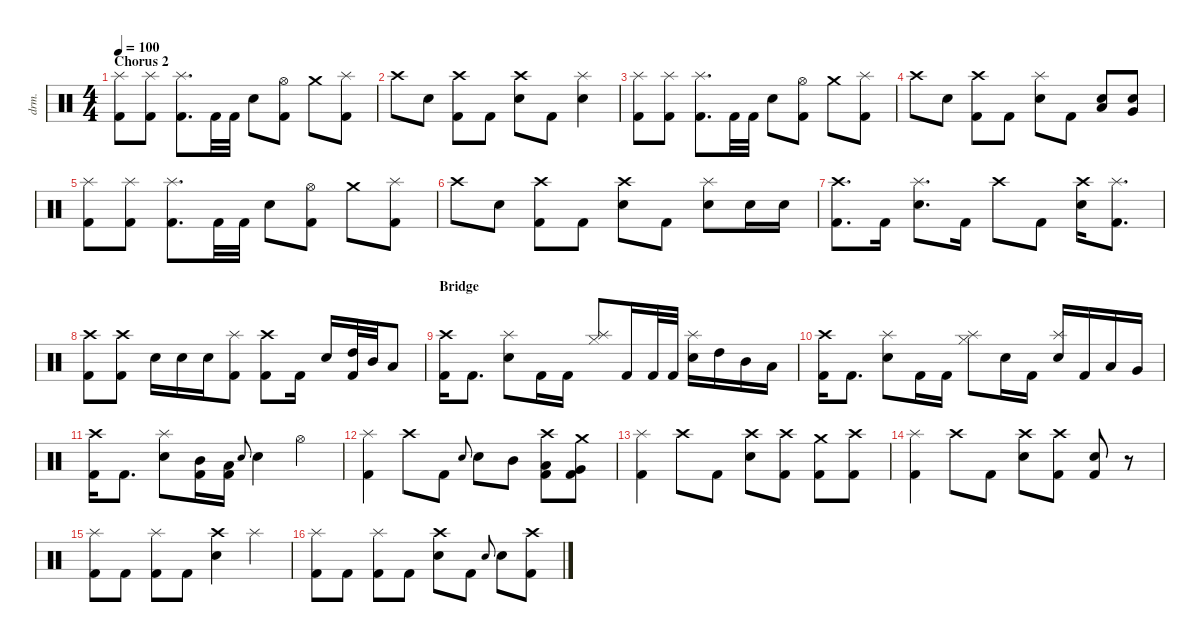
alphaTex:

\defaultSystemsLayout 4
\hideDynamics
\bracketExtendMode nobrackets
\otherSystemsTrackNameOrientation horizontal
\track ("Jorge" "drm.") {instrument percussion}
\staff {score}
\articulation defaults
\ts (4 4)
\section ("" "Chorus 2")
\tempo 100
\clef neutral
\ks c
("Splash (hit)" "Kick (hit) 2").8{dy mf beam Down} ("Kick (hit) 2" "Splash (hit)").8{beam Down} ("Kick (hit) 2" "Splash (hit)").8{d beam Down} "Kick (hit) 2".32{beam Down} "Kick (hit) 2".32{beam Down} "Snare (hit) 2".8{beam Down} ("Kick (hit) 2" "Hi-Hat (open)").8{beam Down} "Crash medium (hit)".8{beam Down} ("Splash (hit)" "Kick (hit) 2").8{beam Down} |
"Crash high (hit)".8{beam Down} "Snare (hit) 2".8{beam Down} ("Kick (hit) 2" "Crash high (hit)").8{beam Down} "Kick (hit) 2".8{beam Down} ("Snare (hit) 2" "Crash high (hit)").8{beam Down} "Kick (hit) 2".8{beam Down} ("Snare (hit) 2" "Splash (hit)").4{beam Down} |
("Splash (hit)" "Kick (hit) 2").8{beam Down} ("Kick (hit) 2" "Splash (hit)").8{beam Down} ("Kick (hit) 2" "Splash (hit)").8{d beam Down} "Kick (hit) 2".32{beam Down} "Kick (hit) 2".32{beam Down} "Snare (hit) 2".8{beam Down} ("Kick (hit) 2" "Hi-Hat (open)").8{beam Down} "Crash medium (hit)".8{beam Down} ("Splash (hit)" "Kick (hit) 2").8{beam Down} |
"Crash high (hit)".8{beam Down} "Snare (hit) 2".8{beam Down} ("Kick (hit) 2" "Crash high (hit)").8{beam Down} "Kick (hit) 2".8{beam Down} ("Snare (hit) 2" "Splash (hit)").8{beam Down} "Kick (hit) 2".8{beam Down} ("Snare (hit) 2" "Low Tom (hit)").8{beam Up} ("Snare (hit) 2" "Very Low Tom (hit)").8{beam Up} |
("Splash (hit)" "Kick (hit) 2").8{beam Down} ("Kick (hit) 2" "Splash (hit)").8{beam Down} ("Kick (hit) 2" "Splash (hit)").8{d beam Down} "Kick (hit) 2".32{beam Down} "Kick (hit) 2".32{beam Down} "Snare (hit) 2".8{beam Down} ("Kick (hit) 2" "Hi-Hat (open)").8{beam Down} "Crash medium (hit)".8{beam Down} ("Splash (hit)" "Kick (hit) 2").8{beam Down} |
"Crash high (hit)".8{beam Down} "Snare (hit) 2".8{beam Down} ("Kick (hit) 2" "Crash high (hit)").8{beam Down} "Kick (hit) 2".8{beam Down} ("Snare (hit) 2" "Crash high (hit)").8{beam Down} "Kick (hit) 2".8{beam Down} ("Snare (hit) 2" "Splash (hit)").8{beam Down} "Snare (hit) 2".16{beam Down} "Snare (hit) 2".16{beam Down} |
("Crash high (hit)" "Kick (hit) 2").8{d beam Down} "Kick (hit) 2".16{beam Down} ("Snare (hit) 2" "Splash (hit)").8{d beam Down} "Kick (hit) 2".16{beam Down} "Crash high (hit)".8{beam Down} "Kick (hit) 2".8{beam Down} ("Snare (hit) 2" "Crash high (hit)").16{beam Down} ("Kick (hit) 2" "Splash (hit)").8{d beam Down} |
("Kick (hit) 2" "Crash high (hit)").8{beam Down} ("Kick (hit) 2" "Crash high (hit)").8{beam Down} "Snare (hit) 2".16{beam Down} "Snare (hit) 2".16{beam Down} "Snare (hit) 2".16{beam Down} ("Kick (hit) 2" "Splash (hit)").8{beam Down} ("Kick (hit) 2" "Crash high (hit)").8{beam Down} "Kick (hit) 2".16{beam Down} "Snare (hit) 2".16{beam Up} ("High Tom (hit)" "Kick (hit) 2").32{beam Up} "Mid Tom (hit)".32{beam Up} "Low Tom (hit)".8{beam Up} |
\section ("" "Bridge")
("Kick (hit) 2" "Crash high (hit)").16{beam Down} "Kick (hit) 2".8{d beam Down} ("Splash (hit)" "Snare (hit) 2").8{beam Down} "Kick (hit) 2".16{beam Down} "Kick (hit) 2".16{beam Down} ("Splash (hit)" "Hi-Hat (closed)").8{beam Up} "Kick (hit) 2".16{beam Up} "Kick (hit) 2".32{beam Up} "Kick (hit) 2".32{beam Up} ("Snare (hit) 2" "Splash (hit)").16{beam Down} "High Tom (hit)".16{beam Down} "Mid Tom (hit)".16{beam Down} "Low Tom (hit)".16{beam Down} |
("Kick (hit) 2" "Crash high (hit)").16{beam Down} "Kick (hit) 2".8{d beam Down} ("Splash (hit)" "Snare (hit) 2").8{beam Down} "Kick (hit) 2".16{beam Down} "Kick (hit) 2".16{beam Down} ("Splash (hit)" "Hi-Hat (closed)").8{beam Down} "Snare (hit) 2".16{beam Down} "Kick (hit) 2".16{beam Down} ("Snare (hit) 2" "Splash (hit)").16{beam Up} "Kick (hit) 2".16{beam Up} "Low Tom (hit)".16{beam Up} "Very Low Tom (hit)".16{beam Up} |
("Kick (hit) 2" "Crash high (hit)").16{beam Down} "Kick (hit) 2".8{d beam Down} ("Splash (hit)" "Snare (hit) 2").8{beam Down} ("Kick (hit) 2" "Mid Tom (hit)").16{beam Down} ("Kick (hit) 2" "Low Tom (hit)").16{beam Down} "Snare (hit) 2".8{gr onbeat beam Up} "Snare (hit) 2".4{beam Down} "Hi-Hat (open)".4{beam Down} |
("Kick (hit) 2" "Splash (hit)").4{beam Down} "Crash high (hit)".8{beam Down} "Kick (hit) 2".8{beam Down} "Snare (hit) 2".8{gr onbeat beam Up} "Snare (hit) 2".8{beam Down} "Mid Tom (hit)".8{beam Down} ("Low Tom (hit)" "Crash high (hit)" "Kick (hit) 2").8{beam Down} ("Very Low Tom (hit)" "Crash medium (hit)" "Kick (hit) 2").8{beam Down} |
("Kick (hit) 2" "Splash (hit)").4{beam Down} "Crash high (hit)".8{beam Down} "Kick (hit) 2".8{beam Down} ("Snare (hit) 2" "Crash high (hit)").8{beam Down} ("Kick (hit) 2" "Crash high (hit)").8{beam Down} ("Kick (hit) 2" "Crash medium (hit)").8{beam Down} ("Kick (hit) 2" "Crash high (hit)").8{beam Down} |
("Kick (hit) 2" "Splash (hit)").4{beam Down} "Crash high (hit)".8{beam Down} "Kick (hit) 2".8{beam Down} ("Snare (hit) 2" "Crash high (hit)").8{beam Down} ("Kick (hit) 2" "Crash high (hit)").8{beam Down} ("Kick (hit) 2" "Snare (hit) 2").8{beam Up} r.8{beam Down} |
("Kick (hit) 2" "Splash (hit)").8{beam Down} "Kick (hit) 2".8{beam Down} ("Kick (hit) 2" "Splash (hit)").8{beam Down} "Kick (hit) 2".8{beam Down} ("Snare (hit) 2" "Crash high (hit)").4{beam Down} "Splash (hit)".4{beam Down} |
("Kick (hit) 2" "Splash (hit)").8{beam Down} "Kick (hit) 2".8{beam Down} ("Kick (hit) 2" "Splash (hit)").8{beam Down} "Kick (hit) 2".8{beam Down} ("Snare (hit) 2" "Crash high (hit)").8{beam Down} "Kick (hit) 2".8{beam Down} "Snare (hit) 2".8{gr onbeat beam Up} "Snare (hit) 2".8{beam Down} ("Kick (hit) 2" "Crash high (hit)").8{beam Down}
